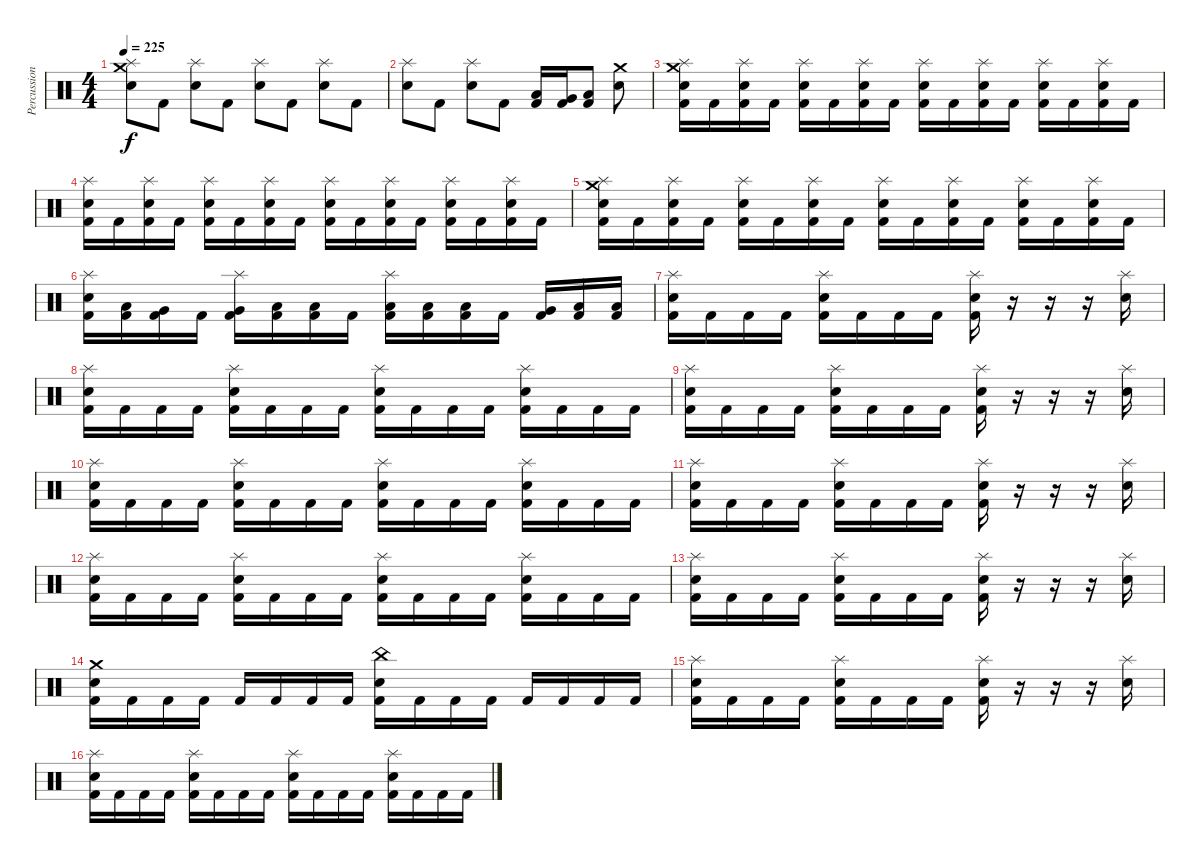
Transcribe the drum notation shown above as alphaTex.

\track ("Percussion" "Percussion") {instrument percussion}
\staff {score}
\articulation defaults
\ts (4 4)
\tempo 225
\clef neutral
\ks c
("Crash medium (hit)" "Splash (hit)" "Snare (hit) 2").8{dy f} "Kick (hit) 2".8 ("Splash (hit)" "Snare (hit) 2").8 "Kick (hit) 2".8 ("Splash (hit)" "Snare (hit) 2").8 "Kick (hit) 2".8 ("Splash (hit)" "Snare (hit) 2").8 "Kick (hit) 2".8 |
("Splash (hit)" "Snare (hit) 2").8 "Kick (hit) 2".8 ("Splash (hit)" "Snare (hit) 2").8 "Kick (hit) 2".8 ("Kick (hit) 2" "Low Tom (hit)").16 ("Kick (hit) 2" "Very Low Tom (hit)").16 ("Kick (hit) 2" "Low Floor Tom (hit)").8 ("Crash medium (hit)" "Snare (hit) 2").8 |
("Crash medium (hit)" "Splash (hit)" "Snare (hit) 2" "Kick (hit) 2").16 "Kick (hit) 2".16 ("Splash (hit)" "Snare (hit) 2" "Kick (hit) 2").16 "Kick (hit) 2".16 ("Splash (hit)" "Snare (hit) 2" "Kick (hit) 2").16 "Kick (hit) 2".16 ("Splash (hit)" "Snare (hit) 2" "Kick (hit) 2").16 "Kick (hit) 2".16 ("Splash (hit)" "Snare (hit) 2" "Kick (hit) 2").16 "Kick (hit) 2".16 ("Splash (hit)" "Snare (hit) 2" "Kick (hit) 2").16 "Kick (hit) 2".16 ("Splash (hit)" "Snare (hit) 2" "Kick (hit) 2").16 "Kick (hit) 2".16 ("Splash (hit)" "Snare (hit) 2" "Kick (hit) 2").16 "Kick (hit) 2".16 |
("Splash (hit)" "Snare (hit) 2" "Kick (hit) 2").16 "Kick (hit) 2".16 ("Splash (hit)" "Snare (hit) 2" "Kick (hit) 2").16 "Kick (hit) 2".16 ("Splash (hit)" "Snare (hit) 2" "Kick (hit) 2").16 "Kick (hit) 2".16 ("Splash (hit)" "Snare (hit) 2" "Kick (hit) 2").16 "Kick (hit) 2".16 ("Splash (hit)" "Snare (hit) 2" "Kick (hit) 2").16 "Kick (hit) 2".16 ("Splash (hit)" "Snare (hit) 2" "Kick (hit) 2").16 "Kick (hit) 2".16 ("Splash (hit)" "Snare (hit) 2" "Kick (hit) 2").16 "Kick (hit) 2".16 ("Splash (hit)" "Snare (hit) 2" "Kick (hit) 2").16 "Kick (hit) 2".16 |
("Crash medium (hit)" "Splash (hit)" "Snare (hit) 2" "Kick (hit) 2").16 "Kick (hit) 2".16 ("Splash (hit)" "Snare (hit) 2" "Kick (hit) 2").16 "Kick (hit) 2".16 ("Splash (hit)" "Snare (hit) 2" "Kick (hit) 2").16 "Kick (hit) 2".16 ("Splash (hit)" "Snare (hit) 2" "Kick (hit) 2").16 "Kick (hit) 2".16 ("Splash (hit)" "Snare (hit) 2" "Kick (hit) 2").16 "Kick (hit) 2".16 ("Splash (hit)" "Snare (hit) 2" "Kick (hit) 2").16 "Kick (hit) 2".16 ("Splash (hit)" "Snare (hit) 2" "Kick (hit) 2").16 "Kick (hit) 2".16 ("Splash (hit)" "Snare (hit) 2" "Kick (hit) 2").16 "Kick (hit) 2".16 |
("Splash (hit)" "Snare (hit) 2" "Kick (hit) 2").16 ("Low Tom (hit)" "Kick (hit) 2").16 ("Very Low Tom (hit)" "Kick (hit) 2").16 "Kick (hit) 2".16 ("Splash (hit)" "Very Low Tom (hit)" "Kick (hit) 2").16 ("Low Floor Tom (hit)" "Kick (hit) 2").16 ("Low Floor Tom (hit)" "Kick (hit) 2").16 "Kick (hit) 2".16 ("Splash (hit)" "Low Floor Tom (hit)" "Kick (hit) 2").16 ("Low Floor Tom (hit)" "Kick (hit) 2").16 ("Low Floor Tom (hit)" "Kick (hit) 2").16 "Kick (hit) 2".16 ("Very Low Tom (hit)" "Kick (hit) 2").16 ("Low Floor Tom (hit)" "Kick (hit) 2").16 ("Low Floor Tom (hit)" "Kick (hit) 2").16 |
("Splash (hit)" "Snare (hit) 2" "Kick (hit) 2").16 "Kick (hit) 2".16 "Kick (hit) 2".16 "Kick (hit) 2".16 ("Splash (hit)" "Snare (hit) 2" "Kick (hit) 2").16 "Kick (hit) 2".16 "Kick (hit) 2".16 "Kick (hit) 2".16 ("Splash (hit)" "Snare (hit) 2" "Kick (hit) 2").16 r.16 r.16 r.16 ("Splash (hit)" "Snare (hit) 2").16 |
("Splash (hit)" "Snare (hit) 2" "Kick (hit) 2").16 "Kick (hit) 2".16 "Kick (hit) 2".16 "Kick (hit) 2".16 ("Splash (hit)" "Snare (hit) 2" "Kick (hit) 2").16 "Kick (hit) 2".16 "Kick (hit) 2".16 "Kick (hit) 2".16 ("Splash (hit)" "Snare (hit) 2" "Kick (hit) 2").16 "Kick (hit) 2".16 "Kick (hit) 2".16 "Kick (hit) 2".16 ("Splash (hit)" "Snare (hit) 2" "Kick (hit) 2").16 "Kick (hit) 2".16 "Kick (hit) 2".16 "Kick (hit) 2".16 |
("Splash (hit)" "Snare (hit) 2" "Kick (hit) 2").16 "Kick (hit) 2".16 "Kick (hit) 2".16 "Kick (hit) 2".16 ("Splash (hit)" "Snare (hit) 2" "Kick (hit) 2").16 "Kick (hit) 2".16 "Kick (hit) 2".16 "Kick (hit) 2".16 ("Splash (hit)" "Snare (hit) 2" "Kick (hit) 2").16 r.16 r.16 r.16 ("Splash (hit)" "Snare (hit) 2").16 |
("Splash (hit)" "Snare (hit) 2" "Kick (hit) 2").16 "Kick (hit) 2".16 "Kick (hit) 2".16 "Kick (hit) 2".16 ("Splash (hit)" "Snare (hit) 2" "Kick (hit) 2").16 "Kick (hit) 2".16 "Kick (hit) 2".16 "Kick (hit) 2".16 ("Splash (hit)" "Snare (hit) 2" "Kick (hit) 2").16 "Kick (hit) 2".16 "Kick (hit) 2".16 "Kick (hit) 2".16 ("Splash (hit)" "Snare (hit) 2" "Kick (hit) 2").16 "Kick (hit) 2".16 "Kick (hit) 2".16 "Kick (hit) 2".16 |
("Splash (hit)" "Snare (hit) 2" "Kick (hit) 2").16 "Kick (hit) 2".16 "Kick (hit) 2".16 "Kick (hit) 2".16 ("Splash (hit)" "Snare (hit) 2" "Kick (hit) 2").16 "Kick (hit) 2".16 "Kick (hit) 2".16 "Kick (hit) 2".16 ("Splash (hit)" "Snare (hit) 2" "Kick (hit) 2").16 r.16 r.16 r.16 ("Splash (hit)" "Snare (hit) 2").16 |
("Splash (hit)" "Snare (hit) 2" "Kick (hit) 2").16 "Kick (hit) 2".16 "Kick (hit) 2".16 "Kick (hit) 2".16 ("Splash (hit)" "Snare (hit) 2" "Kick (hit) 2").16 "Kick (hit) 2".16 "Kick (hit) 2".16 "Kick (hit) 2".16 ("Splash (hit)" "Snare (hit) 2" "Kick (hit) 2").16 "Kick (hit) 2".16 "Kick (hit) 2".16 "Kick (hit) 2".16 ("Splash (hit)" "Snare (hit) 2" "Kick (hit) 2").16 "Kick (hit) 2".16 "Kick (hit) 2".16 "Kick (hit) 2".16 |
("Splash (hit)" "Snare (hit) 2" "Kick (hit) 2").16 "Kick (hit) 2".16 "Kick (hit) 2".16 "Kick (hit) 2".16 ("Splash (hit)" "Snare (hit) 2" "Kick (hit) 2").16 "Kick (hit) 2".16 "Kick (hit) 2".16 "Kick (hit) 2".16 ("Splash (hit)" "Snare (hit) 2" "Kick (hit) 2").16 r.16 r.16 r.16 ("Splash (hit)" "Snare (hit) 2").16 |
("Crash medium (hit)" "Snare (hit) 2" "Kick (hit) 2").16 "Kick (hit) 2".16 "Kick (hit) 2".16 "Kick (hit) 2".16 "Kick (hit) 2".16 "Kick (hit) 2".16 "Kick (hit) 2".16 "Kick (hit) 2".16 ("China (hit)" "Snare (hit) 2" "Kick (hit) 2").16 "Kick (hit) 2".16 "Kick (hit) 2".16 "Kick (hit) 2".16 "Kick (hit) 2".16 "Kick (hit) 2".16 "Kick (hit) 2".16 "Kick (hit) 2".16 |
("Splash (hit)" "Snare (hit) 2" "Kick (hit) 2").16 "Kick (hit) 2".16 "Kick (hit) 2".16 "Kick (hit) 2".16 ("Splash (hit)" "Snare (hit) 2" "Kick (hit) 2").16 "Kick (hit) 2".16 "Kick (hit) 2".16 "Kick (hit) 2".16 ("Splash (hit)" "Snare (hit) 2" "Kick (hit) 2").16 r.16 r.16 r.16 ("Splash (hit)" "Snare (hit) 2").16 |
("Splash (hit)" "Snare (hit) 2" "Kick (hit) 2").16 "Kick (hit) 2".16 "Kick (hit) 2".16 "Kick (hit) 2".16 ("Splash (hit)" "Snare (hit) 2" "Kick (hit) 2").16 "Kick (hit) 2".16 "Kick (hit) 2".16 "Kick (hit) 2".16 ("Splash (hit)" "Snare (hit) 2" "Kick (hit) 2").16 "Kick (hit) 2".16 "Kick (hit) 2".16 "Kick (hit) 2".16 ("Splash (hit)" "Snare (hit) 2" "Kick (hit) 2").16 "Kick (hit) 2".16 "Kick (hit) 2".16 "Kick (hit) 2".16
